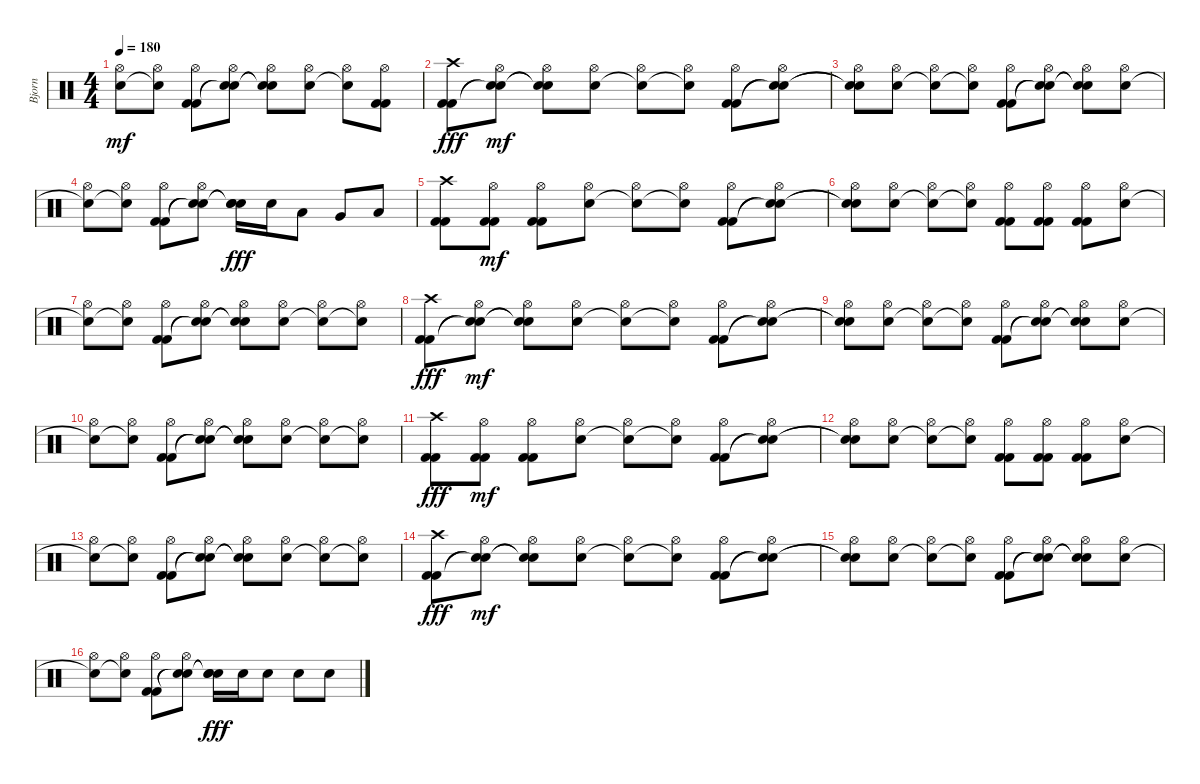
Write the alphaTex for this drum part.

\track ("Bjorn" "Bjorn") {instrument percussion}
\staff {score}
\articulation defaults
\ts (4 4)
\tempo 180
\clef neutral
\ks c
("Snare (hit)"{t} "Hi-Hat (open)").8{dy mf} ("Snare (hit)"{t} "Hi-Hat (open)").8 ("Kick (hit) 2" "Kick (hit) 2" "Hi-Hat (open)").8 ("Snare (hit)"{t} "Snare (hit)"{t} "Hi-Hat (open)").8 ("Snare (hit)"{t} "Snare (hit)"{t} "Hi-Hat (open)").8 ("Snare (hit) 2" "Hi-Hat (open)").8 ("Snare (hit)"{t} "Hi-Hat (open)").8 ("Kick (hit) 2" "Kick (hit) 2" "Hi-Hat (open)").8 |
("Kick (hit) 2" "Kick (hit) 2" "Crash high (hit)").8{dy fff} ("Snare (hit)"{t} "Snare (hit)"{t} "Hi-Hat (open)").8{dy mf} ("Snare (hit)"{t} "Snare (hit)"{t} "Hi-Hat (open)").8 ("Snare (hit) 2" "Hi-Hat (open)").8 ("Snare (hit)"{t} "Hi-Hat (open)").8 ("Snare (hit)"{t} "Hi-Hat (open)").8 ("Kick (hit) 2" "Kick (hit) 2" "Hi-Hat (open)").8 ("Snare (hit)"{t} "Snare (hit)"{t} "Hi-Hat (open)").8 |
("Snare (hit)"{t} "Snare (hit)"{t} "Hi-Hat (open)").8 ("Snare (hit) 2" "Hi-Hat (open)").8 ("Snare (hit)"{t} "Hi-Hat (open)").8 ("Snare (hit)"{t} "Hi-Hat (open)").8 ("Kick (hit) 2" "Kick (hit) 2" "Hi-Hat (open)").8 ("Snare (hit)"{t} "Snare (hit)"{t} "Hi-Hat (open)").8 ("Snare (hit)"{t} "Snare (hit)"{t} "Hi-Hat (open)").8 ("Snare (hit) 2" "Hi-Hat (open)").8 |
("Snare (hit)"{t} "Hi-Hat (open)").8 ("Snare (hit)"{t} "Hi-Hat (open)").8 ("Kick (hit) 2" "Kick (hit) 2" "Hi-Hat (open)").8 ("Snare (hit)"{t} "Snare (hit)"{t} "Hi-Hat (open)").8 ("Snare (hit)"{t} "Snare (hit)"{t} "Snare (hit) 2").16{dy fff} "Snare (hit) 2".16 "Low Tom (hit)".8 "Very Low Tom (hit)".8 "Low Floor Tom (hit)".8 |
("Kick (hit) 2" "Kick (hit) 2" "Crash high (hit)").8 ("Kick (hit) 2" "Kick (hit) 2" "Hi-Hat (open)").8{dy mf} ("Kick (hit) 2" "Kick (hit) 2" "Hi-Hat (open)").8 ("Snare (hit) 2" "Hi-Hat (open)").8 ("Snare (hit)"{t} "Hi-Hat (open)").8 ("Snare (hit)"{t} "Hi-Hat (open)").8 ("Kick (hit) 2" "Kick (hit) 2" "Hi-Hat (open)").8 ("Snare (hit)"{t} "Snare (hit)"{t} "Hi-Hat (open)").8 |
("Snare (hit)"{t} "Snare (hit)"{t} "Hi-Hat (open)").8 ("Snare (hit) 2" "Hi-Hat (open)").8 ("Snare (hit)"{t} "Hi-Hat (open)").8 ("Snare (hit)"{t} "Hi-Hat (open)").8 ("Kick (hit) 2" "Kick (hit) 2" "Hi-Hat (open)").8 ("Kick (hit) 2" "Kick (hit) 2" "Hi-Hat (open)").8 ("Kick (hit) 2" "Kick (hit) 2" "Hi-Hat (open)").8 ("Snare (hit) 2" "Hi-Hat (open)").8 |
("Snare (hit)"{t} "Hi-Hat (open)").8 ("Snare (hit)"{t} "Hi-Hat (open)").8 ("Kick (hit) 2" "Kick (hit) 2" "Hi-Hat (open)").8 ("Snare (hit)"{t} "Snare (hit)"{t} "Hi-Hat (open)").8 ("Snare (hit)"{t} "Snare (hit)"{t} "Hi-Hat (open)").8 ("Snare (hit) 2" "Hi-Hat (open)").8 ("Snare (hit)"{t} "Hi-Hat (open)").8 ("Snare (hit)"{t} "Hi-Hat (open)").8 |
("Kick (hit) 2" "Kick (hit) 2" "Crash high (hit)").8{dy fff} ("Snare (hit)"{t} "Snare (hit)"{t} "Hi-Hat (open)").8{dy mf} ("Snare (hit)"{t} "Snare (hit)"{t} "Hi-Hat (open)").8 ("Snare (hit) 2" "Hi-Hat (open)").8 ("Snare (hit)"{t} "Hi-Hat (open)").8 ("Snare (hit)"{t} "Hi-Hat (open)").8 ("Kick (hit) 2" "Kick (hit) 2" "Hi-Hat (open)").8 ("Snare (hit)"{t} "Snare (hit)"{t} "Hi-Hat (open)").8 |
("Snare (hit)"{t} "Snare (hit)"{t} "Hi-Hat (open)").8 ("Snare (hit) 2" "Hi-Hat (open)").8 ("Snare (hit)"{t} "Hi-Hat (open)").8 ("Snare (hit)"{t} "Hi-Hat (open)").8 ("Kick (hit) 2" "Kick (hit) 2" "Hi-Hat (open)").8 ("Snare (hit)"{t} "Snare (hit)"{t} "Hi-Hat (open)").8 ("Snare (hit)"{t} "Snare (hit)"{t} "Hi-Hat (open)").8 ("Snare (hit) 2" "Hi-Hat (open)").8 |
("Snare (hit)"{t} "Hi-Hat (open)").8 ("Snare (hit)"{t} "Hi-Hat (open)").8 ("Kick (hit) 2" "Kick (hit) 2" "Hi-Hat (open)").8 ("Snare (hit)"{t} "Snare (hit)"{t} "Hi-Hat (open)").8 ("Snare (hit)"{t} "Snare (hit)"{t} "Hi-Hat (open)").8 ("Snare (hit) 2" "Hi-Hat (open)").8 ("Snare (hit)"{t} "Hi-Hat (open)").8 ("Snare (hit)"{t} "Hi-Hat (open)").8 |
("Kick (hit) 2" "Kick (hit) 2" "Crash high (hit)").8{dy fff} ("Kick (hit) 2" "Kick (hit) 2" "Hi-Hat (open)").8{dy mf} ("Kick (hit) 2" "Kick (hit) 2" "Hi-Hat (open)").8 ("Snare (hit) 2" "Hi-Hat (open)").8 ("Snare (hit)"{t} "Hi-Hat (open)").8 ("Snare (hit)"{t} "Hi-Hat (open)").8 ("Kick (hit) 2" "Kick (hit) 2" "Hi-Hat (open)").8 ("Snare (hit)"{t} "Snare (hit)"{t} "Hi-Hat (open)").8 |
("Snare (hit)"{t} "Snare (hit)"{t} "Hi-Hat (open)").8 ("Snare (hit) 2" "Hi-Hat (open)").8 ("Snare (hit)"{t} "Hi-Hat (open)").8 ("Snare (hit)"{t} "Hi-Hat (open)").8 ("Kick (hit) 2" "Kick (hit) 2" "Hi-Hat (open)").8 ("Kick (hit) 2" "Kick (hit) 2" "Hi-Hat (open)").8 ("Kick (hit) 2" "Kick (hit) 2" "Hi-Hat (open)").8 ("Snare (hit) 2" "Hi-Hat (open)").8 |
("Snare (hit)"{t} "Hi-Hat (open)").8 ("Snare (hit)"{t} "Hi-Hat (open)").8 ("Kick (hit) 2" "Kick (hit) 2" "Hi-Hat (open)").8 ("Snare (hit)"{t} "Snare (hit)"{t} "Hi-Hat (open)").8 ("Snare (hit)"{t} "Snare (hit)"{t} "Hi-Hat (open)").8 ("Snare (hit) 2" "Hi-Hat (open)").8 ("Snare (hit)"{t} "Hi-Hat (open)").8 ("Snare (hit)"{t} "Hi-Hat (open)").8 |
("Kick (hit) 2" "Kick (hit) 2" "Crash high (hit)").8{dy fff} ("Snare (hit)"{t} "Snare (hit)"{t} "Hi-Hat (open)").8{dy mf} ("Snare (hit)"{t} "Snare (hit)"{t} "Hi-Hat (open)").8 ("Snare (hit) 2" "Hi-Hat (open)").8 ("Snare (hit)"{t} "Hi-Hat (open)").8 ("Snare (hit)"{t} "Hi-Hat (open)").8 ("Kick (hit) 2" "Kick (hit) 2" "Hi-Hat (open)").8 ("Snare (hit)"{t} "Snare (hit)"{t} "Hi-Hat (open)").8 |
("Snare (hit)"{t} "Snare (hit)"{t} "Hi-Hat (open)").8 ("Snare (hit) 2" "Hi-Hat (open)").8 ("Snare (hit)"{t} "Hi-Hat (open)").8 ("Snare (hit)"{t} "Hi-Hat (open)").8 ("Kick (hit) 2" "Kick (hit) 2" "Hi-Hat (open)").8 ("Snare (hit)"{t} "Snare (hit)"{t} "Hi-Hat (open)").8 ("Snare (hit)"{t} "Snare (hit)"{t} "Hi-Hat (open)").8 ("Snare (hit) 2" "Hi-Hat (open)").8 |
("Snare (hit)"{t} "Hi-Hat (open)").8 ("Snare (hit)"{t} "Hi-Hat (open)").8 ("Kick (hit) 2" "Kick (hit) 2" "Hi-Hat (open)").8 ("Snare (hit)"{t} "Snare (hit)"{t} "Hi-Hat (open)").8 ("Snare (hit)"{t} "Snare (hit)"{t} "Snare (hit) 2").16{dy fff} "Snare (hit) 2".16 "Snare (hit) 2".8 "Snare (hit) 2".8 "Snare (hit) 2".8
